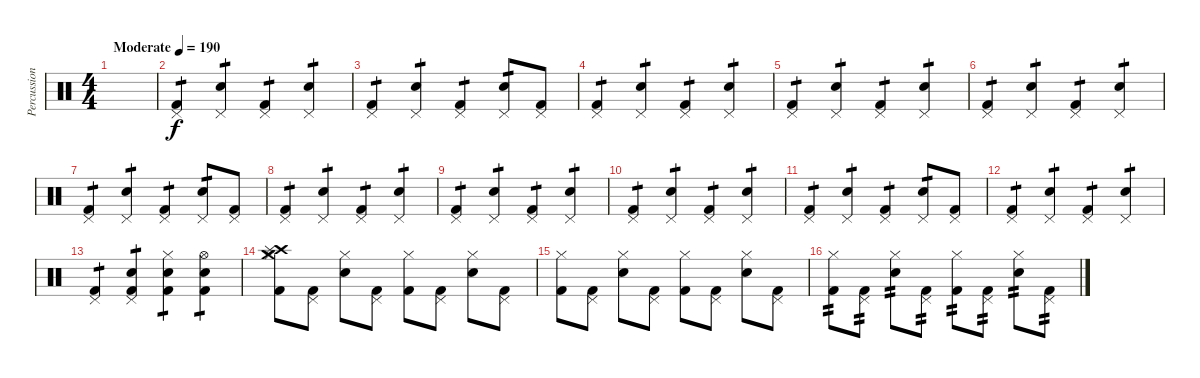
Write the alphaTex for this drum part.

\track ("Percussion" "Percussion") {instrument percussion}
\staff {score}
\articulation defaults
\ts (4 4)
\tempo (190 "Moderate")
\clef neutral
\ks c
|
("Pedal Hi-Hat (hit)" "Kick (hit) 2").4{tp 1} ("Pedal Hi-Hat (hit)" "Snare (hit) 2").4{tp 1} ("Pedal Hi-Hat (hit)" "Kick (hit) 2").4{tp 1} ("Pedal Hi-Hat (hit)" "Snare (hit) 2").4{tp 1} |
("Pedal Hi-Hat (hit)" "Kick (hit) 2").4{tp 1} ("Pedal Hi-Hat (hit)" "Snare (hit) 2").4{tp 1} ("Pedal Hi-Hat (hit)" "Kick (hit) 2").4{tp 1} ("Pedal Hi-Hat (hit)" "Snare (hit) 2").8{tp 1} ("Pedal Hi-Hat (hit)" "Kick (hit) 2").8 |
("Pedal Hi-Hat (hit)" "Kick (hit) 2").4{tp 1} ("Pedal Hi-Hat (hit)" "Snare (hit) 2").4{tp 1} ("Pedal Hi-Hat (hit)" "Kick (hit) 2").4{tp 1} ("Pedal Hi-Hat (hit)" "Snare (hit) 2").4{tp 1} |
("Pedal Hi-Hat (hit)" "Kick (hit) 2").4{tp 1} ("Pedal Hi-Hat (hit)" "Snare (hit) 2").4{tp 1} ("Pedal Hi-Hat (hit)" "Kick (hit) 2").4{tp 1} ("Pedal Hi-Hat (hit)" "Snare (hit) 2").4{tp 1} |
("Pedal Hi-Hat (hit)" "Kick (hit) 2").4{tp 1} ("Pedal Hi-Hat (hit)" "Snare (hit) 2").4{tp 1} ("Pedal Hi-Hat (hit)" "Kick (hit) 2").4{tp 1} ("Pedal Hi-Hat (hit)" "Snare (hit) 2").4{tp 1} |
("Pedal Hi-Hat (hit)" "Kick (hit) 2").4{tp 1} ("Pedal Hi-Hat (hit)" "Snare (hit) 2").4{tp 1} ("Pedal Hi-Hat (hit)" "Kick (hit) 2").4{tp 1} ("Pedal Hi-Hat (hit)" "Snare (hit) 2").8{tp 1} ("Pedal Hi-Hat (hit)" "Kick (hit) 2").8 |
("Pedal Hi-Hat (hit)" "Kick (hit) 2").4{tp 1} ("Pedal Hi-Hat (hit)" "Snare (hit) 2").4{tp 1} ("Pedal Hi-Hat (hit)" "Kick (hit) 2").4{tp 1} ("Pedal Hi-Hat (hit)" "Snare (hit) 2").4{tp 1} |
("Pedal Hi-Hat (hit)" "Kick (hit) 2").4{tp 1} ("Pedal Hi-Hat (hit)" "Snare (hit) 2").4{tp 1} ("Pedal Hi-Hat (hit)" "Kick (hit) 2").4{tp 1} ("Pedal Hi-Hat (hit)" "Snare (hit) 2").4{tp 1} |
("Pedal Hi-Hat (hit)" "Kick (hit) 2").4{tp 1} ("Pedal Hi-Hat (hit)" "Snare (hit) 2").4{tp 1} ("Pedal Hi-Hat (hit)" "Kick (hit) 2").4{tp 1} ("Pedal Hi-Hat (hit)" "Snare (hit) 2").4{tp 1} |
("Pedal Hi-Hat (hit)" "Kick (hit) 2").4{tp 1} ("Pedal Hi-Hat (hit)" "Snare (hit) 2").4{tp 1} ("Pedal Hi-Hat (hit)" "Kick (hit) 2").4{tp 1} ("Pedal Hi-Hat (hit)" "Snare (hit) 2").8{tp 1} ("Pedal Hi-Hat (hit)" "Kick (hit) 2").8 |
("Pedal Hi-Hat (hit)" "Kick (hit) 2").4{tp 1} ("Pedal Hi-Hat (hit)" "Snare (hit) 2").4{tp 1} ("Pedal Hi-Hat (hit)" "Kick (hit) 2").4{tp 1} ("Pedal Hi-Hat (hit)" "Snare (hit) 2").4{tp 1} |
("Pedal Hi-Hat (hit)" "Kick (hit) 2").4{tp 1} ("Pedal Hi-Hat (hit)" "Snare (hit) 2" "Kick (hit) 2").4{tp 1} ("Hi-Hat (closed)" "Snare (hit) 2" "Kick (hit) 2").4{tp 1} ("Hi-Hat (open)" "Snare (hit) 2" "Kick (hit) 2").4{tp 1} |
("Hi-Hat (closed)" "Crash medium (hit)" "Crash high (hit)" "Splash (hit)" "Kick (hit) 2").8 ("Pedal Hi-Hat (hit)" "Kick (hit) 2").8 ("Hi-Hat (closed)" "Snare (hit) 2").8 ("Pedal Hi-Hat (hit)" "Kick (hit) 2").8 ("Hi-Hat (closed)" "Kick (hit) 2").8 ("Pedal Hi-Hat (hit)" "Kick (hit) 2").8 ("Hi-Hat (closed)" "Snare (hit) 2").8 ("Pedal Hi-Hat (hit)" "Kick (hit) 2").8 |
("Hi-Hat (closed)" "Kick (hit) 2").8 ("Pedal Hi-Hat (hit)" "Kick (hit) 2").8 ("Hi-Hat (closed)" "Snare (hit) 2").8 ("Pedal Hi-Hat (hit)" "Kick (hit) 2").8 ("Hi-Hat (closed)" "Kick (hit) 2").8 ("Pedal Hi-Hat (hit)" "Kick (hit) 2").8 ("Hi-Hat (closed)" "Snare (hit) 2").8 ("Pedal Hi-Hat (hit)" "Kick (hit) 2").8 |
("Hi-Hat (closed)" "Kick (hit) 2").8{tp 2} ("Pedal Hi-Hat (hit)" "Kick (hit) 2").8{tp 2} ("Hi-Hat (closed)" "Snare (hit) 2").8{tp 2} ("Pedal Hi-Hat (hit)" "Kick (hit) 2").8{tp 2} ("Hi-Hat (closed)" "Kick (hit) 2").8{tp 2} ("Pedal Hi-Hat (hit)" "Kick (hit) 2").8{tp 2} ("Hi-Hat (closed)" "Snare (hit) 2").8{tp 2} ("Pedal Hi-Hat (hit)" "Kick (hit) 2").8{tp 2}
